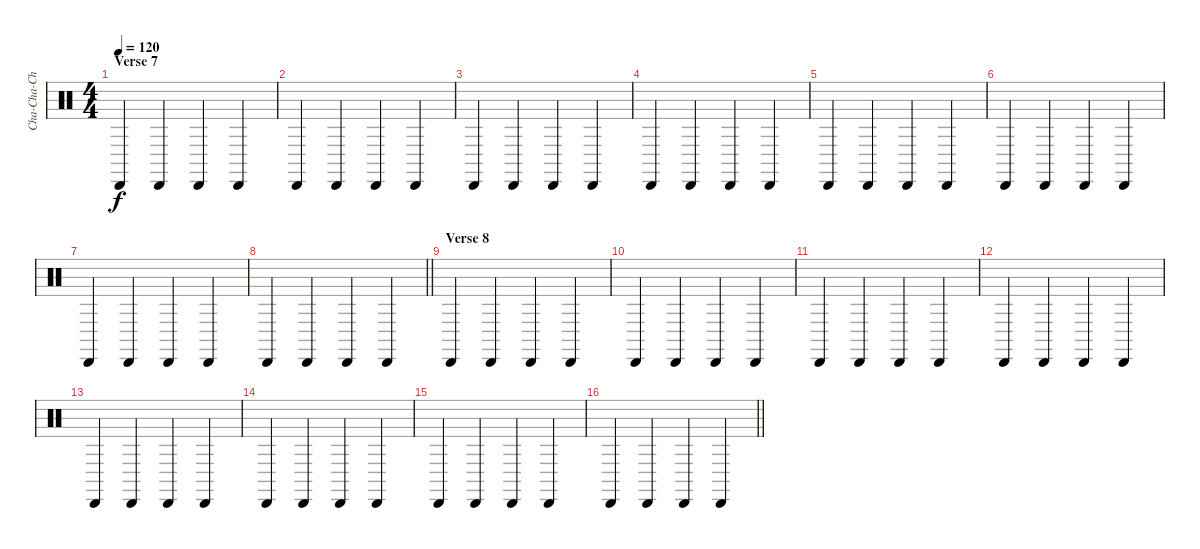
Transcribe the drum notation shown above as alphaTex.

\track ("Cha-Cha-Cha's" "Cha-Cha-Ch") {instrument percussion}
\staff {score}
\articulation defaults
\ts (4 4)
\section ("" "Verse 7")
\tempo 120
\clef neutral
\ks c "Cabasa (hit)".4{dy f} "Cabasa (hit)".4 "Cabasa (hit)".4 "Cabasa (hit)".4
|
"Cabasa (hit)".4 "Cabasa (hit)".4 "Cabasa (hit)".4 "Cabasa (hit)".4 |
"Cabasa (hit)".4 "Cabasa (hit)".4 "Cabasa (hit)".4 "Cabasa (hit)".4 |
"Cabasa (hit)".4 "Cabasa (hit)".4 "Cabasa (hit)".4 "Cabasa (hit)".4 |
"Cabasa (hit)".4 "Cabasa (hit)".4 "Cabasa (hit)".4 "Cabasa (hit)".4 |
"Cabasa (hit)".4 "Cabasa (hit)".4 "Cabasa (hit)".4 "Cabasa (hit)".4 |
"Cabasa (hit)".4 "Cabasa (hit)".4 "Cabasa (hit)".4 "Cabasa (hit)".4 |
\barLineRight lightlight "Cabasa (hit)".4 "Cabasa (hit)".4 "Cabasa (hit)".4 "Cabasa (hit)".4
|
\section ("" "Verse 8")
"Cabasa (hit)".4 "Cabasa (hit)".4 "Cabasa (hit)".4 "Cabasa (hit)".4 |
"Cabasa (hit)".4 "Cabasa (hit)".4 "Cabasa (hit)".4 "Cabasa (hit)".4 |
"Cabasa (hit)".4 "Cabasa (hit)".4 "Cabasa (hit)".4 "Cabasa (hit)".4 |
"Cabasa (hit)".4 "Cabasa (hit)".4 "Cabasa (hit)".4 "Cabasa (hit)".4 |
"Cabasa (hit)".4 "Cabasa (hit)".4 "Cabasa (hit)".4 "Cabasa (hit)".4 |
"Cabasa (hit)".4 "Cabasa (hit)".4 "Cabasa (hit)".4 "Cabasa (hit)".4 |
"Cabasa (hit)".4 "Cabasa (hit)".4 "Cabasa (hit)".4 "Cabasa (hit)".4 |
\barLineRight lightlight "Cabasa (hit)".4 "Cabasa (hit)".4 "Cabasa (hit)".4 "Cabasa (hit)".4
